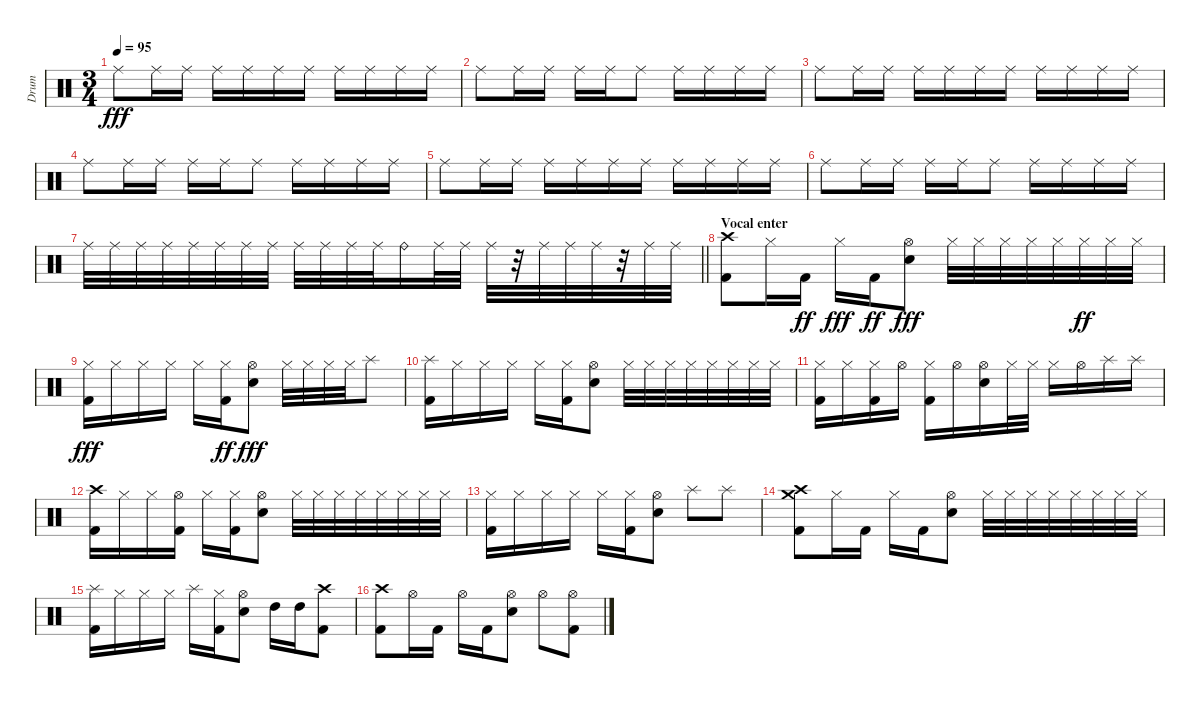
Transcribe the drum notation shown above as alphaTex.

\track ("Drum" "Drum") {instrument percussion}
\staff {score}
\articulation defaults
\ts (3 4)
\tempo 95
\clef neutral
\ks c "Ride (middle)".8{dy fff} "Ride (middle)".16 "Ride (middle)".16 "Ride (middle)".16 "Ride (middle)".16 "Ride (middle)".16 "Ride (middle)".16 "Ride (middle)".16 "Ride (middle)".16 "Ride (middle)".16 "Ride (middle)".16
|
"Ride (middle)".8 "Ride (middle)".16 "Ride (middle)".16 "Ride (middle)".16 "Ride (middle)".16 "Ride (middle)".8 "Ride (middle)".16 "Ride (middle)".16 "Ride (middle)".16 "Ride (middle)".16 |
"Ride (middle)".8 "Ride (middle)".16 "Ride (middle)".16 "Ride (middle)".16 "Ride (middle)".16 "Ride (middle)".16 "Ride (middle)".16 "Ride (middle)".16 "Ride (middle)".16 "Ride (middle)".16 "Ride (middle)".16 |
"Ride (middle)".8 "Ride (middle)".16 "Ride (middle)".16 "Ride (middle)".16 "Ride (middle)".16 "Ride (middle)".8 "Ride (middle)".16 "Ride (middle)".16 "Ride (middle)".16 "Ride (middle)".16 |
"Ride (middle)".8 "Ride (middle)".16 "Ride (middle)".16 "Ride (middle)".16 "Ride (middle)".16 "Ride (middle)".16 "Ride (middle)".16 "Ride (middle)".16 "Ride (middle)".16 "Ride (middle)".16 "Ride (middle)".16 |
"Ride (middle)".8 "Ride (middle)".16 "Ride (middle)".16 "Ride (middle)".16 "Ride (middle)".16 "Ride (middle)".8 "Ride (middle)".16 "Ride (middle)".16 "Ride (middle)".16 "Ride (middle)".16 |
\barLineRight lightlight "Ride (middle)".32 "Ride (middle)".32 "Ride (middle)".32 "Ride (middle)".32 "Ride (middle)".32 "Ride (middle)".32 "Ride (middle)".32 "Ride (middle)".32 "Ride (middle)".32 "Ride (middle)".32 "Ride (middle)".32 "Ride (middle)".32 "Ride (bell)".16 "Ride (middle)".32 "Ride (middle)".32 "Ride (middle)".32
r.32 "Ride (middle)".32 "Ride (middle)".32 "Ride (middle)".32 r.32 "Ride (middle)".32 "Ride (middle)".32 |
\section ("" "Vocal enter")
("Crash high (hit)" "Kick (hit) 2").8 "Hi-Hat (closed)".16 "Kick (hit) 2".16{dy ff} "Hi-Hat (closed)".16{dy fff} "Kick (hit) 2".16{dy ff} ("Hi-Hat (open)" "Electric Snare (hit)").8{dy fff} "Hi-Hat (closed)".32 "Hi-Hat (closed)".32 "Hi-Hat (closed)".32 "Hi-Hat (closed)".32 "Hi-Hat (closed)".32 "Hi-Hat (closed)".32{dy ff} "Hi-Hat (closed)".32 "Hi-Hat (closed)".32 |
("Hi-Hat (closed)" "Kick (hit) 2").16{dy fff} "Hi-Hat (closed)".16 "Hi-Hat (closed)".16 "Hi-Hat (closed)".16 "Hi-Hat (closed)".16 ("Hi-Hat (closed)" "Kick (hit) 2").16{dy ff} ("Hi-Hat (open)" "Electric Snare (hit)").8{dy fff} "Hi-Hat (closed)".32 "Hi-Hat (closed)".32 "Hi-Hat (closed)".32 "Hi-Hat (closed)".32 "Splash (hit)".8 |
("Splash (hit)" "Kick (hit) 2").16 "Hi-Hat (closed)".16 "Hi-Hat (closed)".16 "Hi-Hat (closed)".16 "Hi-Hat (closed)".16 ("Hi-Hat (closed)" "Kick (hit) 2").16 ("Hi-Hat (open)" "Electric Snare (hit)").8 "Hi-Hat (closed)".32 "Hi-Hat (closed)".32 "Hi-Hat (closed)".32 "Hi-Hat (closed)".32 "Hi-Hat (closed)".32 "Hi-Hat (closed)".32 "Hi-Hat (closed)".32 "Hi-Hat (closed)".32 |
("Hi-Hat (closed)" "Kick (hit) 2").16 "Hi-Hat (closed)".16 ("Hi-Hat (closed)" "Kick (hit) 2").16 "Hi-Hat (open)".16 ("Hi-Hat (closed)" "Kick (hit) 2").16 "Hi-Hat (open)".16 ("Hi-Hat (open)" "Electric Snare (hit)").16 "Hi-Hat (closed)".32 "Hi-Hat (closed)".32 "Hi-Hat (closed)".16 "Hi-Hat (open)".16 "Splash (hit)".16 "Splash (hit)".16 |
("Crash high (hit)" "Kick (hit) 2").16 "Hi-Hat (closed)".16 "Hi-Hat (closed)".16 ("Hi-Hat (open)" "Kick (hit) 2").16 "Hi-Hat (closed)".16 ("Hi-Hat (closed)" "Kick (hit) 2").16 ("Hi-Hat (open)" "Electric Snare (hit)").8 "Hi-Hat (closed)".32 "Hi-Hat (closed)".32 "Hi-Hat (closed)".32 "Hi-Hat (closed)".32 "Hi-Hat (closed)".32 "Hi-Hat (closed)".32 "Hi-Hat (closed)".32 "Hi-Hat (closed)".32 |
("Hi-Hat (closed)" "Kick (hit) 2").16 "Hi-Hat (closed)".16 "Hi-Hat (closed)".16 "Hi-Hat (closed)".16 "Hi-Hat (closed)".16 ("Hi-Hat (closed)" "Kick (hit) 2").16 ("Hi-Hat (open)" "Electric Snare (hit)").8 "Splash (hit)".8 "Splash (hit)".8 |
("Crash medium (hit)" "Crash high (hit)" "Kick (hit) 2").8 "Hi-Hat (closed)".16 "Kick (hit) 2".16 "Hi-Hat (closed)".16 "Kick (hit) 2".16 ("Hi-Hat (open)" "Electric Snare (hit)").8 "Hi-Hat (closed)".32 "Hi-Hat (closed)".32 "Hi-Hat (closed)".32 "Hi-Hat (closed)".32 "Hi-Hat (closed)".32 "Hi-Hat (closed)".32 "Hi-Hat (closed)".32 "Hi-Hat (closed)".32 |
("Splash (hit)" "Kick (hit) 2").16 "Hi-Hat (closed)".16 "Hi-Hat (closed)".16 "Hi-Hat (closed)".16 "Splash (hit)".16 ("Hi-Hat (closed)" "Kick (hit) 2").16 ("Hi-Hat (open)" "Electric Snare (hit)").8 "High Tom (hit)".16 "High Tom (hit)".16 ("Crash high (hit)" "Kick (hit) 2").8 |
("Crash high (hit)" "Kick (hit) 2").8 "Hi-Hat (open)".16 "Kick (hit) 2".16 "Hi-Hat (open)".16 "Kick (hit) 2".16 ("Hi-Hat (open)" "Electric Snare (hit)").8 "Hi-Hat (open)".8 ("Hi-Hat (open)" "Kick (hit) 2").8
